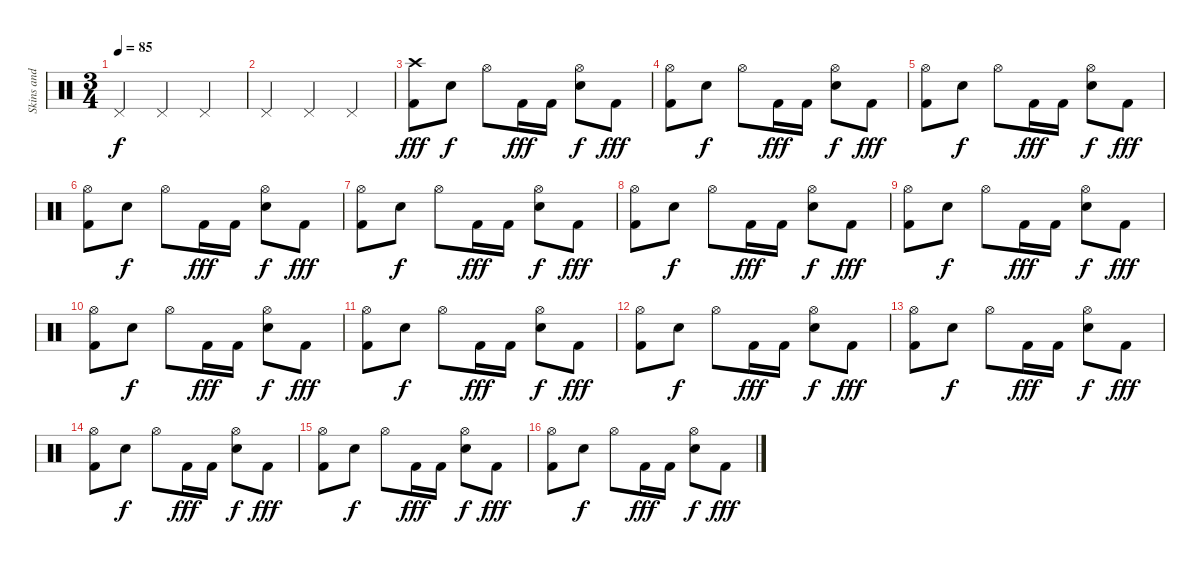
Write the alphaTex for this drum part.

\track ("Skins and Cymbals" "Skins and ") {instrument percussion}
\staff {score}
\articulation defaults
\ts (3 4)
\tempo 85
\clef neutral
\ks c "Pedal Hi-Hat (hit)".4{dy f} "Pedal Hi-Hat (hit)".4 "Pedal Hi-Hat (hit)".4
|
"Pedal Hi-Hat (hit)".4 "Pedal Hi-Hat (hit)".4 "Pedal Hi-Hat (hit)".4 |
("Crash high (hit)" "Kick (hit) 2").8{dy fff} "Electric Snare (hit)".8{dy f} "Hi-Hat (open)".8 "Kick (hit) 2".16{dy fff} "Kick (hit) 2".16 ("Hi-Hat (open)" "Electric Snare (hit)").8{dy f} "Kick (hit) 2".8{dy fff} |
("Hi-Hat (open)" "Kick (hit) 2").8 "Electric Snare (hit)".8{dy f} "Hi-Hat (open)".8 "Kick (hit) 2".16{dy fff} "Kick (hit) 2".16 ("Hi-Hat (open)" "Electric Snare (hit)").8{dy f} "Kick (hit) 2".8{dy fff} |
("Hi-Hat (open)" "Kick (hit) 2").8 "Electric Snare (hit)".8{dy f} "Hi-Hat (open)".8 "Kick (hit) 2".16{dy fff} "Kick (hit) 2".16 ("Hi-Hat (open)" "Electric Snare (hit)").8{dy f} "Kick (hit) 2".8{dy fff} |
("Hi-Hat (open)" "Kick (hit) 2").8 "Electric Snare (hit)".8{dy f} "Hi-Hat (open)".8 "Kick (hit) 2".16{dy fff} "Kick (hit) 2".16 ("Hi-Hat (open)" "Electric Snare (hit)").8{dy f} "Kick (hit) 2".8{dy fff} |
("Hi-Hat (open)" "Kick (hit) 2").8 "Electric Snare (hit)".8{dy f} "Hi-Hat (open)".8 "Kick (hit) 2".16{dy fff} "Kick (hit) 2".16 ("Hi-Hat (open)" "Electric Snare (hit)").8{dy f} "Kick (hit) 2".8{dy fff} |
("Hi-Hat (open)" "Kick (hit) 2").8 "Electric Snare (hit)".8{dy f} "Hi-Hat (open)".8 "Kick (hit) 2".16{dy fff} "Kick (hit) 2".16 ("Hi-Hat (open)" "Electric Snare (hit)").8{dy f} "Kick (hit) 2".8{dy fff} |
("Hi-Hat (open)" "Kick (hit) 2").8 "Electric Snare (hit)".8{dy f} "Hi-Hat (open)".8 "Kick (hit) 2".16{dy fff} "Kick (hit) 2".16 ("Hi-Hat (open)" "Electric Snare (hit)").8{dy f} "Kick (hit) 2".8{dy fff} |
("Hi-Hat (open)" "Kick (hit) 2").8 "Electric Snare (hit)".8{dy f} "Hi-Hat (open)".8 "Kick (hit) 2".16{dy fff} "Kick (hit) 2".16 ("Hi-Hat (open)" "Electric Snare (hit)").8{dy f} "Kick (hit) 2".8{dy fff} |
("Hi-Hat (open)" "Kick (hit) 2").8 "Electric Snare (hit)".8{dy f} "Hi-Hat (open)".8 "Kick (hit) 2".16{dy fff} "Kick (hit) 2".16 ("Hi-Hat (open)" "Electric Snare (hit)").8{dy f} "Kick (hit) 2".8{dy fff} |
("Hi-Hat (open)" "Kick (hit) 2").8 "Electric Snare (hit)".8{dy f} "Hi-Hat (open)".8 "Kick (hit) 2".16{dy fff} "Kick (hit) 2".16 ("Hi-Hat (open)" "Electric Snare (hit)").8{dy f} "Kick (hit) 2".8{dy fff} |
("Hi-Hat (open)" "Kick (hit) 2").8 "Electric Snare (hit)".8{dy f} "Hi-Hat (open)".8 "Kick (hit) 2".16{dy fff} "Kick (hit) 2".16 ("Hi-Hat (open)" "Electric Snare (hit)").8{dy f} "Kick (hit) 2".8{dy fff} |
("Hi-Hat (open)" "Kick (hit) 2").8 "Electric Snare (hit)".8{dy f} "Hi-Hat (open)".8 "Kick (hit) 2".16{dy fff} "Kick (hit) 2".16 ("Hi-Hat (open)" "Electric Snare (hit)").8{dy f} "Kick (hit) 2".8{dy fff} |
("Hi-Hat (open)" "Kick (hit) 2").8 "Electric Snare (hit)".8{dy f} "Hi-Hat (open)".8 "Kick (hit) 2".16{dy fff} "Kick (hit) 2".16 ("Hi-Hat (open)" "Electric Snare (hit)").8{dy f} "Kick (hit) 2".8{dy fff} |
("Hi-Hat (open)" "Kick (hit) 2").8 "Electric Snare (hit)".8{dy f} "Hi-Hat (open)".8 "Kick (hit) 2".16{dy fff} "Kick (hit) 2".16 ("Hi-Hat (open)" "Electric Snare (hit)").8{dy f} "Kick (hit) 2".8{dy fff}
